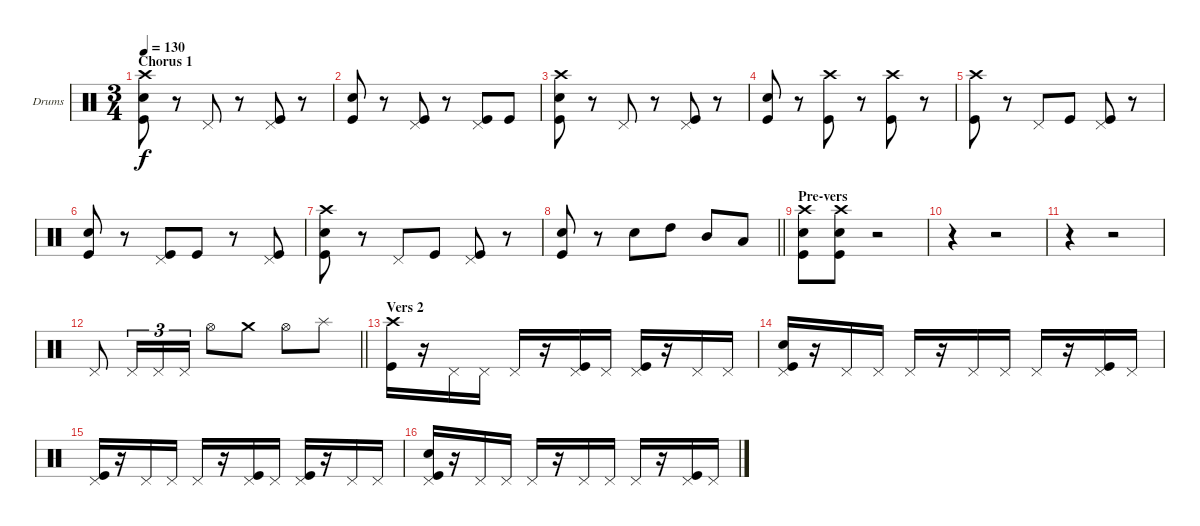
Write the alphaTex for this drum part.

\bracketExtendMode groupsimilarinstruments
\firstSystemTrackNameOrientation horizontal
\otherSystemsTrackNameOrientation horizontal
\track ("Drumkit" "Drums") {instrument percussion}
\staff {score}
\articulation defaults
\ts (3 4)
\section ("" "Chorus 1")
\tempo 130
\clef neutral
\ks c
("Kick (hit)" "Snare (hit) 2" "Crash high (hit)").8{dy f} r.8 "Pedal Hi-Hat (hit)".8 r.8 ("Kick (hit)" "Pedal Hi-Hat (hit)").8 r.8 |
("Kick (hit)" "Snare (hit) 2").8 r.8 ("Kick (hit)" "Pedal Hi-Hat (hit)").8 r.8 ("Kick (hit)" "Pedal Hi-Hat (hit)").8 "Kick (hit)".8 |
("Kick (hit)" "Snare (hit) 2" "Crash high (hit)").8 r.8 "Pedal Hi-Hat (hit)".8 r.8 ("Kick (hit)" "Pedal Hi-Hat (hit)").8 r.8 |
("Kick (hit)" "Snare (hit) 2").8 r.8 ("Kick (hit)" "Crash high (hit)").8 r.8 ("Kick (hit)" "Crash high (hit)").8 r.8 |
("Kick (hit)" "Crash high (hit)").8 r.8 "Pedal Hi-Hat (hit)".8 "Kick (hit)".8 ("Kick (hit)" "Pedal Hi-Hat (hit)").8 r.8 |
("Kick (hit)" "Snare (hit) 2").8 r.8 ("Kick (hit)" "Pedal Hi-Hat (hit)").8 "Kick (hit)".8 r.8 ("Kick (hit)" "Pedal Hi-Hat (hit)").8 |
("Kick (hit)" "Snare (hit) 2" "Crash high (hit)").8 r.8 "Pedal Hi-Hat (hit)".8 "Kick (hit)".8 ("Kick (hit)" "Pedal Hi-Hat (hit)").8 r.8 |
\barLineRight lightlight
("Kick (hit)" "Snare (hit) 2").8 r.8 "Snare (hit) 2".8 "High Tom (hit)".8 "Mid Tom (hit)".8 "Low Tom (hit)".8 |
\section ("" "Pre-vers")
("Kick (hit)" "Snare (hit) 2" "Crash high (hit)").8 ("Kick (hit)" "Snare (hit) 2" "Crash high (hit)").8 r.2 |
r.4 r.2 |
r.4 r.2 |
\barLineRight lightlight "Pedal Hi-Hat (hit)".8 "Pedal Hi-Hat (hit)".16{tu (3 2)} "Pedal Hi-Hat (hit)".16{tu (3 2)} "Pedal Hi-Hat (hit)".16{tu (3 2)} "Hi-Hat (open)".8 "Crash medium (hit)".8 "Hi-Hat (open)".8 "Splash (hit)".8
|
\section ("" "Vers 2")
("Kick (hit)" "Crash high (hit)").16 r.16 "Pedal Hi-Hat (hit)".16 "Pedal Hi-Hat (hit)".16 "Pedal Hi-Hat (hit)".16 r.16 ("Kick (hit)" "Pedal Hi-Hat (hit)").16 "Pedal Hi-Hat (hit)".16 ("Kick (hit)" "Pedal Hi-Hat (hit)").16 r.16 "Pedal Hi-Hat (hit)".16 "Pedal Hi-Hat (hit)".16 |
("Kick (hit)" "Snare (hit) 2" "Pedal Hi-Hat (hit)").16 r.16 "Pedal Hi-Hat (hit)".16 "Pedal Hi-Hat (hit)".16 "Pedal Hi-Hat (hit)".16 r.16 "Pedal Hi-Hat (hit)".16 "Pedal Hi-Hat (hit)".16 "Pedal Hi-Hat (hit)".16 r.16 ("Kick (hit)" "Pedal Hi-Hat (hit)").16 "Pedal Hi-Hat (hit)".16 |
("Kick (hit)" "Pedal Hi-Hat (hit)").16 r.16 "Pedal Hi-Hat (hit)".16 "Pedal Hi-Hat (hit)".16 "Pedal Hi-Hat (hit)".16 r.16 ("Kick (hit)" "Pedal Hi-Hat (hit)").16 "Pedal Hi-Hat (hit)".16 ("Kick (hit)" "Pedal Hi-Hat (hit)").16 r.16 "Pedal Hi-Hat (hit)".16 "Pedal Hi-Hat (hit)".16 |
("Kick (hit)" "Snare (hit) 2" "Pedal Hi-Hat (hit)").16 r.16 "Pedal Hi-Hat (hit)".16 "Pedal Hi-Hat (hit)".16 "Pedal Hi-Hat (hit)".16 r.16 "Pedal Hi-Hat (hit)".16 "Pedal Hi-Hat (hit)".16 "Pedal Hi-Hat (hit)".16 r.16 ("Kick (hit)" "Pedal Hi-Hat (hit)").16 "Pedal Hi-Hat (hit)".16
